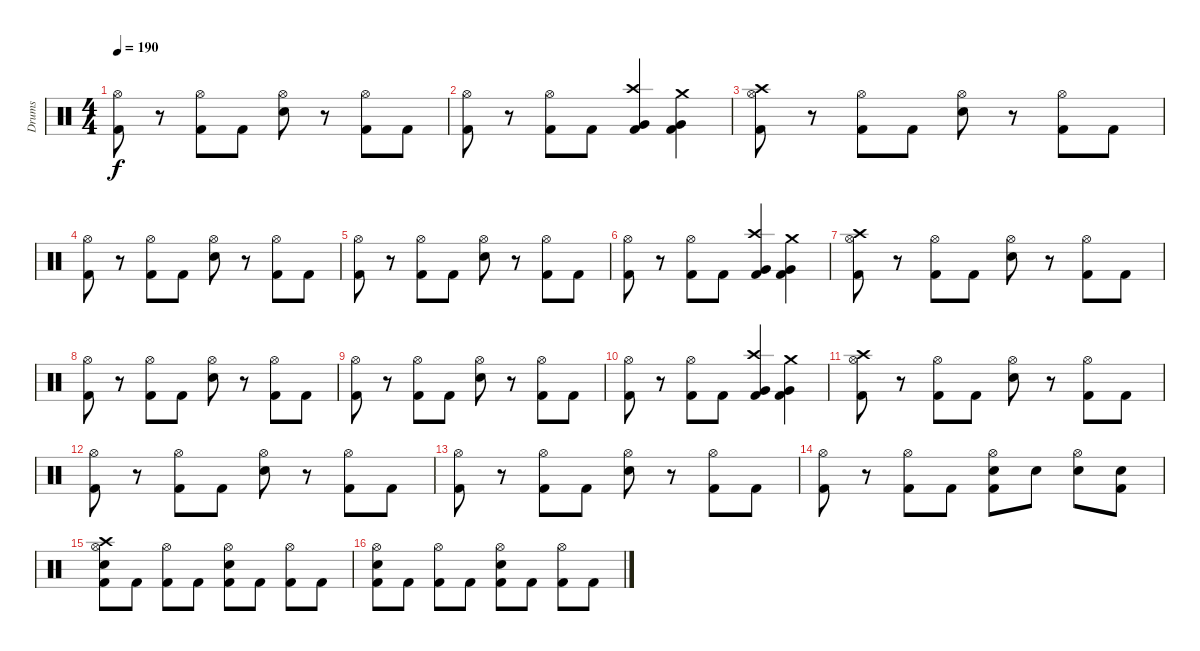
\track ("Drums" "Drums") {instrument percussion}
\staff {score}
\articulation defaults
\ts (4 4)
\tempo 190
\clef neutral
\ks c
("Hi-Hat (open)" "Kick (hit) 2").8{dy f} r.8 ("Hi-Hat (open)" "Kick (hit) 2").8 "Kick (hit) 2".8 ("Hi-Hat (open)" "Snare (hit) 2").8 r.8 ("Hi-Hat (open)" "Kick (hit) 2").8 "Kick (hit) 2".8 |
("Hi-Hat (open)" "Kick (hit) 2").8 r.8 ("Hi-Hat (open)" "Kick (hit) 2").8 "Kick (hit) 2".8 ("Crash high (hit)" "Very Low Tom (hit)" "Kick (hit) 2").4 ("Crash medium (hit)" "Very Low Tom (hit)" "Kick (hit) 2").4 |
("Crash high (hit)" "Hi-Hat (open)" "Kick (hit) 2").8 r.8 ("Hi-Hat (open)" "Kick (hit) 2").8 "Kick (hit) 2".8 ("Hi-Hat (open)" "Snare (hit) 2").8 r.8 ("Hi-Hat (open)" "Kick (hit) 2").8 "Kick (hit) 2".8 |
("Hi-Hat (open)" "Kick (hit) 2").8 r.8 ("Hi-Hat (open)" "Kick (hit) 2").8 "Kick (hit) 2".8 ("Hi-Hat (open)" "Snare (hit) 2").8 r.8 ("Hi-Hat (open)" "Kick (hit) 2").8 "Kick (hit) 2".8 |
("Hi-Hat (open)" "Kick (hit) 2").8 r.8 ("Hi-Hat (open)" "Kick (hit) 2").8 "Kick (hit) 2".8 ("Hi-Hat (open)" "Snare (hit) 2").8 r.8 ("Hi-Hat (open)" "Kick (hit) 2").8 "Kick (hit) 2".8 |
("Hi-Hat (open)" "Kick (hit) 2").8 r.8 ("Hi-Hat (open)" "Kick (hit) 2").8 "Kick (hit) 2".8 ("Crash high (hit)" "Very Low Tom (hit)" "Kick (hit) 2").4 ("Crash medium (hit)" "Very Low Tom (hit)" "Kick (hit) 2").4 |
("Crash high (hit)" "Hi-Hat (open)" "Kick (hit) 2").8 r.8 ("Hi-Hat (open)" "Kick (hit) 2").8 "Kick (hit) 2".8 ("Hi-Hat (open)" "Snare (hit) 2").8 r.8 ("Hi-Hat (open)" "Kick (hit) 2").8 "Kick (hit) 2".8 |
("Hi-Hat (open)" "Kick (hit) 2").8 r.8 ("Hi-Hat (open)" "Kick (hit) 2").8 "Kick (hit) 2".8 ("Hi-Hat (open)" "Snare (hit) 2").8 r.8 ("Hi-Hat (open)" "Kick (hit) 2").8 "Kick (hit) 2".8 |
("Hi-Hat (open)" "Kick (hit) 2").8 r.8 ("Hi-Hat (open)" "Kick (hit) 2").8 "Kick (hit) 2".8 ("Hi-Hat (open)" "Snare (hit) 2").8 r.8 ("Hi-Hat (open)" "Kick (hit) 2").8 "Kick (hit) 2".8 |
("Hi-Hat (open)" "Kick (hit) 2").8 r.8 ("Hi-Hat (open)" "Kick (hit) 2").8 "Kick (hit) 2".8 ("Crash high (hit)" "Very Low Tom (hit)" "Kick (hit) 2").4 ("Crash medium (hit)" "Very Low Tom (hit)" "Kick (hit) 2").4 |
("Crash high (hit)" "Hi-Hat (open)" "Kick (hit) 2").8 r.8 ("Hi-Hat (open)" "Kick (hit) 2").8 "Kick (hit) 2".8 ("Hi-Hat (open)" "Snare (hit) 2").8 r.8 ("Hi-Hat (open)" "Kick (hit) 2").8 "Kick (hit) 2".8 |
("Hi-Hat (open)" "Kick (hit) 2").8 r.8 ("Hi-Hat (open)" "Kick (hit) 2").8 "Kick (hit) 2".8 ("Hi-Hat (open)" "Snare (hit) 2").8 r.8 ("Hi-Hat (open)" "Kick (hit) 2").8 "Kick (hit) 2".8 |
("Hi-Hat (open)" "Kick (hit) 2").8 r.8 ("Hi-Hat (open)" "Kick (hit) 2").8 "Kick (hit) 2".8 ("Hi-Hat (open)" "Snare (hit) 2").8 r.8 ("Hi-Hat (open)" "Kick (hit) 2").8 "Kick (hit) 2".8 |
("Hi-Hat (open)" "Kick (hit) 2").8 r.8 ("Hi-Hat (open)" "Kick (hit) 2").8 "Kick (hit) 2".8 ("Hi-Hat (open)" "Snare (hit) 2" "Kick (hit) 2").8 "Snare (hit) 2".8 ("Hi-Hat (open)" "Snare (hit) 2").8 ("Snare (hit) 2" "Kick (hit) 2").8 |
("Crash high (hit)" "Hi-Hat (open)" "Snare (hit) 2" "Kick (hit) 2").8 "Kick (hit) 2".8 ("Hi-Hat (open)" "Kick (hit) 2").8 "Kick (hit) 2".8 ("Hi-Hat (open)" "Snare (hit) 2" "Kick (hit) 2").8 "Kick (hit) 2".8 ("Hi-Hat (open)" "Kick (hit) 2").8 "Kick (hit) 2".8 |
("Hi-Hat (open)" "Snare (hit) 2" "Kick (hit) 2").8 "Kick (hit) 2".8 ("Hi-Hat (open)" "Kick (hit) 2").8 "Kick (hit) 2".8 ("Hi-Hat (open)" "Snare (hit) 2" "Kick (hit) 2").8 "Kick (hit) 2".8 ("Hi-Hat (open)" "Kick (hit) 2").8 "Kick (hit) 2".8
